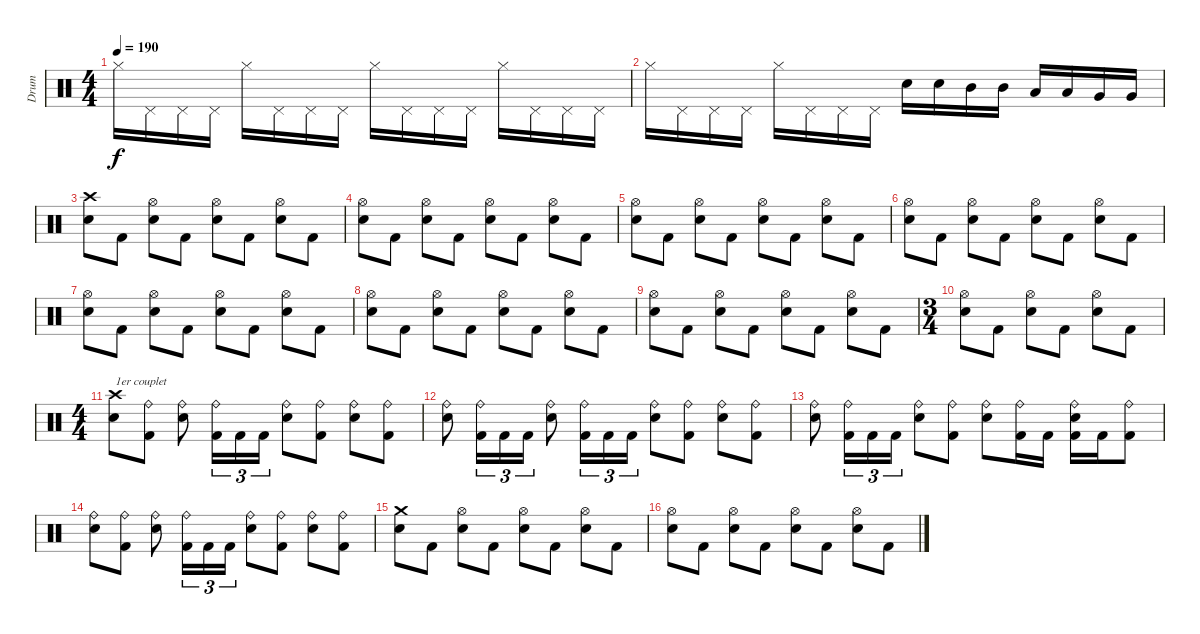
\track ("Drum" "Drum") {instrument percussion}
\staff {score}
\articulation defaults
\ts (4 4)
\tempo 190
\clef neutral
\ks c "Hi-Hat (closed)".16{dy f} "Pedal Hi-Hat (hit)".16 "Pedal Hi-Hat (hit)".16 "Pedal Hi-Hat (hit)".16 "Hi-Hat (closed)".16 "Pedal Hi-Hat (hit)".16 "Pedal Hi-Hat (hit)".16 "Pedal Hi-Hat (hit)".16 "Hi-Hat (closed)".16 "Pedal Hi-Hat (hit)".16 "Pedal Hi-Hat (hit)".16 "Pedal Hi-Hat (hit)".16 "Hi-Hat (closed)".16 "Pedal Hi-Hat (hit)".16 "Pedal Hi-Hat (hit)".16 "Pedal Hi-Hat (hit)".16
|
"Hi-Hat (closed)".16 "Pedal Hi-Hat (hit)".16 "Pedal Hi-Hat (hit)".16 "Pedal Hi-Hat (hit)".16 "Hi-Hat (closed)".16 "Pedal Hi-Hat (hit)".16 "Pedal Hi-Hat (hit)".16 "Pedal Hi-Hat (hit)".16 "Snare (hit) 2".16 "Snare (hit) 2".16 "Mid Tom (hit)".16 "Mid Tom (hit)".16 "Low Tom (hit)".16 "Low Tom (hit)".16 "Very Low Tom (hit)".16 "Very Low Tom (hit)".16 |
("Snare (hit) 2" "Crash high (hit)").8 "Kick (hit) 2".8 ("Snare (hit) 2" "Hi-Hat (open)").8 "Kick (hit) 2".8 ("Snare (hit) 2" "Hi-Hat (open)").8 "Kick (hit) 2".8 ("Snare (hit) 2" "Hi-Hat (open)").8 "Kick (hit) 2".8 |
("Snare (hit) 2" "Hi-Hat (open)").8 "Kick (hit) 2".8 ("Snare (hit) 2" "Hi-Hat (open)").8 "Kick (hit) 2".8 ("Snare (hit) 2" "Hi-Hat (open)").8 "Kick (hit) 2".8 ("Snare (hit) 2" "Hi-Hat (open)").8 "Kick (hit) 2".8 |
("Snare (hit) 2" "Hi-Hat (open)").8 "Kick (hit) 2".8 ("Snare (hit) 2" "Hi-Hat (open)").8 "Kick (hit) 2".8 ("Snare (hit) 2" "Hi-Hat (open)").8 "Kick (hit) 2".8 ("Snare (hit) 2" "Hi-Hat (open)").8 "Kick (hit) 2".8 |
("Snare (hit) 2" "Hi-Hat (open)").8 "Kick (hit) 2".8 ("Snare (hit) 2" "Hi-Hat (open)").8 "Kick (hit) 2".8 ("Snare (hit) 2" "Hi-Hat (open)").8 "Kick (hit) 2".8 ("Snare (hit) 2" "Hi-Hat (open)").8 "Kick (hit) 2".8 |
("Snare (hit) 2" "Hi-Hat (open)").8 "Kick (hit) 2".8 ("Snare (hit) 2" "Hi-Hat (open)").8 "Kick (hit) 2".8 ("Snare (hit) 2" "Hi-Hat (open)").8 "Kick (hit) 2".8 ("Snare (hit) 2" "Hi-Hat (open)").8 "Kick (hit) 2".8 |
("Snare (hit) 2" "Hi-Hat (open)").8 "Kick (hit) 2".8 ("Snare (hit) 2" "Hi-Hat (open)").8 "Kick (hit) 2".8 ("Snare (hit) 2" "Hi-Hat (open)").8 "Kick (hit) 2".8 ("Snare (hit) 2" "Hi-Hat (open)").8 "Kick (hit) 2".8 |
("Snare (hit) 2" "Hi-Hat (open)").8 "Kick (hit) 2".8 ("Snare (hit) 2" "Hi-Hat (open)").8 "Kick (hit) 2".8 ("Snare (hit) 2" "Hi-Hat (open)").8 "Kick (hit) 2".8 ("Snare (hit) 2" "Hi-Hat (open)").8 "Kick (hit) 2".8 |
\ts (3 4)
("Snare (hit) 2" "Hi-Hat (open)").8 "Kick (hit) 2".8 ("Snare (hit) 2" "Hi-Hat (open)").8 "Kick (hit) 2".8 ("Snare (hit) 2" "Hi-Hat (open)").8 "Kick (hit) 2".8 |
\ts (4 4)
("Snare (hit) 2" "Crash high (hit)").8{txt "1er couplet"} ("Kick (hit) 2" "Ride (bell)").8 ("Snare (hit) 2" "Ride (bell)").8 ("Kick (hit) 2" "Ride (bell)").16{tu (3 2)} "Kick (hit) 2".16{tu (3 2)} "Kick (hit) 2".16{tu (3 2)} ("Snare (hit) 2" "Ride (bell)").8 ("Kick (hit) 2" "Ride (bell)").8 ("Snare (hit) 2" "Ride (bell)").8 ("Kick (hit) 2" "Ride (bell)").8 |
("Snare (hit) 2" "Ride (bell)").8 ("Kick (hit) 2" "Ride (bell)").16{tu (3 2)} "Kick (hit) 2".16{tu (3 2)} "Kick (hit) 2".16{tu (3 2)} ("Snare (hit) 2" "Ride (bell)").8 ("Kick (hit) 2" "Ride (bell)").16{tu (3 2)} "Kick (hit) 2".16{tu (3 2)} "Kick (hit) 2".16{tu (3 2)} ("Snare (hit) 2" "Ride (bell)").8 ("Kick (hit) 2" "Ride (bell)").8 ("Snare (hit) 2" "Ride (bell)").8 ("Kick (hit) 2" "Ride (bell)").8 |
("Snare (hit) 2" "Ride (bell)").8 ("Kick (hit) 2" "Ride (bell)").16{tu (3 2)} "Kick (hit) 2".16{tu (3 2)} "Kick (hit) 2".16{tu (3 2)} ("Snare (hit) 2" "Ride (bell)").8 ("Kick (hit) 2" "Ride (bell)").8 ("Snare (hit) 2" "Ride (bell)").8 ("Kick (hit) 2" "Ride (bell)").16 "Kick (hit) 2".16 ("Kick (hit) 2" "Snare (hit) 2" "Ride (bell)").16 "Kick (hit) 2".16 ("Kick (hit) 2" "Ride (bell)").8 |
("Snare (hit) 2" "Ride (bell)").8 ("Kick (hit) 2" "Ride (bell)").8 ("Snare (hit) 2" "Ride (bell)").8 ("Kick (hit) 2" "Ride (bell)").16{tu (3 2)} "Kick (hit) 2".16{tu (3 2)} "Kick (hit) 2".16{tu (3 2)} ("Snare (hit) 2" "Ride (bell)").8 ("Kick (hit) 2" "Ride (bell)").8 ("Snare (hit) 2" "Ride (bell)").8 ("Kick (hit) 2" "Ride (bell)").8 |
("Snare (hit) 2" "Crash medium (hit)").8 "Kick (hit) 2".8 ("Snare (hit) 2" "Hi-Hat (open)").8 "Kick (hit) 2".8 ("Snare (hit) 2" "Hi-Hat (open)").8 "Kick (hit) 2".8 ("Snare (hit) 2" "Hi-Hat (open)").8 "Kick (hit) 2".8 |
("Snare (hit) 2" "Hi-Hat (open)").8 "Kick (hit) 2".8 ("Snare (hit) 2" "Hi-Hat (open)").8 "Kick (hit) 2".8 ("Snare (hit) 2" "Hi-Hat (open)").8 "Kick (hit) 2".8 ("Snare (hit) 2" "Hi-Hat (open)").8 "Kick (hit) 2".8
